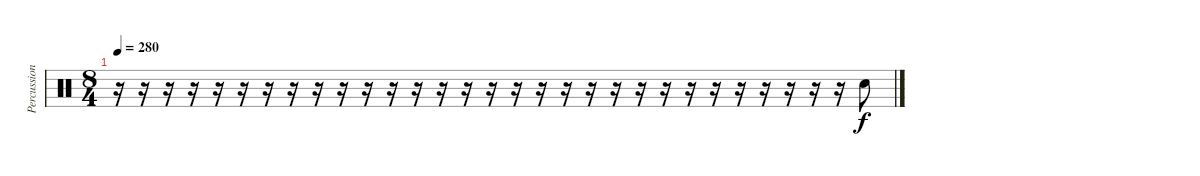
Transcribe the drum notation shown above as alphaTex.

\track ("Percussion" "Percussion") {instrument percussion}
\staff {score}
\articulation defaults
\ts (8 4)
\tempo 280
\clef neutral
\ks c
r.16{dy f} r.16 r.16 r.16 r.16 r.16 r.16 r.16 r.16 r.16 r.16 r.16 r.16 r.16 r.16 r.16 r.16 r.16 r.16 r.16 r.16 r.16 r.16 r.16 r.16 r.16 r.16 r.16 r.16 r.16 "Electric Snare (hit)".8
